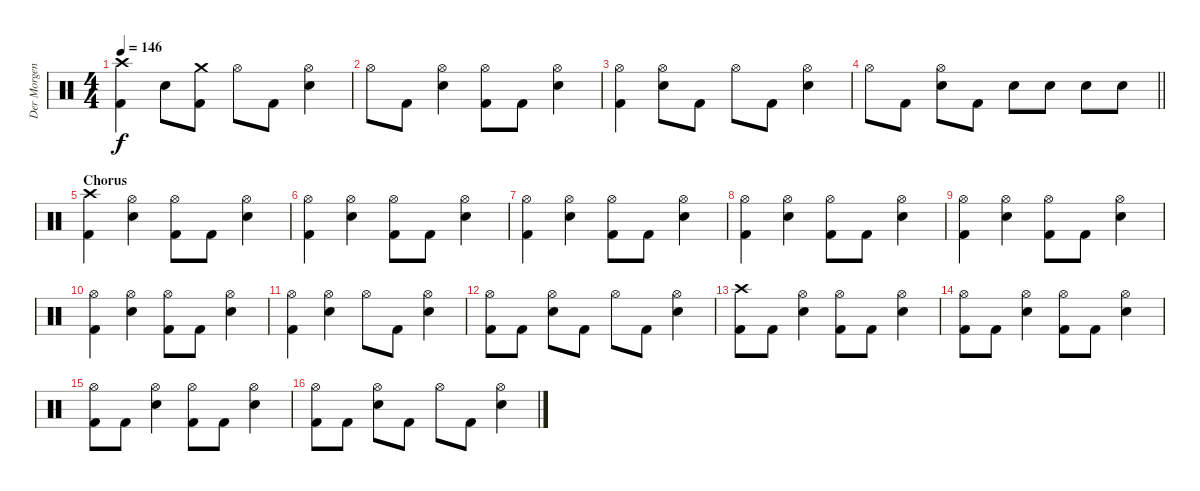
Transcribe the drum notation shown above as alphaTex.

\track ("Der Morgenstern" "Der Morgen") {instrument percussion}
\staff {score}
\articulation defaults
\ts (4 4)
\tempo 146
\clef neutral
\ks c
("Crash high (hit)" "Kick (hit) 2").4{dy f} "Electric Snare (hit)".8 ("Crash medium (hit)" "Kick (hit) 2").8 "Hi-Hat (open)".8 "Kick (hit) 2".8 ("Hi-Hat (open)" "Electric Snare (hit)").4 |
"Hi-Hat (open)".8 "Kick (hit) 2".8 ("Hi-Hat (open)" "Electric Snare (hit)").4 ("Hi-Hat (open)" "Kick (hit) 2").8 "Kick (hit) 2".8 ("Hi-Hat (open)" "Electric Snare (hit)").4 |
("Hi-Hat (open)" "Kick (hit) 2").4 ("Hi-Hat (open)" "Electric Snare (hit)").8 "Kick (hit) 2".8 "Hi-Hat (open)".8 "Kick (hit) 2".8 ("Hi-Hat (open)" "Electric Snare (hit)").4 |
\barLineRight lightlight "Hi-Hat (open)".8 "Kick (hit) 2".8
("Hi-Hat (open)" "Electric Snare (hit)").8 "Kick (hit) 2".8 "Electric Snare (hit)".8 "Electric Snare (hit)".8 "Electric Snare (hit)".8 "Electric Snare (hit)".8 |
\section ("" "Chorus")
("Crash high (hit)" "Kick (hit) 2").4 ("Hi-Hat (open)" "Electric Snare (hit)").4 ("Hi-Hat (open)" "Kick (hit) 2").8 "Kick (hit) 2".8 ("Hi-Hat (open)" "Electric Snare (hit)").4 |
("Hi-Hat (open)" "Kick (hit) 2").4 ("Hi-Hat (open)" "Electric Snare (hit)").4 ("Hi-Hat (open)" "Kick (hit) 2").8 "Kick (hit) 2".8 ("Hi-Hat (open)" "Electric Snare (hit)").4 |
("Hi-Hat (open)" "Kick (hit) 2").4 ("Hi-Hat (open)" "Electric Snare (hit)").4 ("Hi-Hat (open)" "Kick (hit) 2").8 "Kick (hit) 2".8 ("Hi-Hat (open)" "Electric Snare (hit)").4 |
("Hi-Hat (open)" "Kick (hit) 2").4 ("Hi-Hat (open)" "Electric Snare (hit)").4 ("Hi-Hat (open)" "Kick (hit) 2").8 "Kick (hit) 2".8 ("Hi-Hat (open)" "Electric Snare (hit)").4 |
("Hi-Hat (open)" "Kick (hit) 2").4 ("Hi-Hat (open)" "Electric Snare (hit)").4 ("Hi-Hat (open)" "Kick (hit) 2").8 "Kick (hit) 2".8 ("Hi-Hat (open)" "Electric Snare (hit)").4 |
("Hi-Hat (open)" "Kick (hit) 2").4 ("Hi-Hat (open)" "Electric Snare (hit)").4 ("Hi-Hat (open)" "Kick (hit) 2").8 "Kick (hit) 2".8 ("Hi-Hat (open)" "Electric Snare (hit)").4 |
("Hi-Hat (open)" "Kick (hit) 2").4 ("Hi-Hat (open)" "Electric Snare (hit)").4 "Hi-Hat (open)".8 "Kick (hit) 2".8 ("Hi-Hat (open)" "Electric Snare (hit)").4 |
("Hi-Hat (open)" "Kick (hit) 2").8 "Kick (hit) 2".8 ("Hi-Hat (open)" "Electric Snare (hit)").8 "Kick (hit) 2".8 "Hi-Hat (open)".8 "Kick (hit) 2".8 ("Hi-Hat (open)" "Electric Snare (hit)").4 |
("Crash high (hit)" "Kick (hit) 2").8 "Kick (hit) 2".8 ("Hi-Hat (open)" "Electric Snare (hit)").4 ("Hi-Hat (open)" "Kick (hit) 2").8 "Kick (hit) 2".8 ("Hi-Hat (open)" "Electric Snare (hit)").4 |
("Hi-Hat (open)" "Kick (hit) 2").8 "Kick (hit) 2".8 ("Hi-Hat (open)" "Electric Snare (hit)").4 ("Hi-Hat (open)" "Kick (hit) 2").8 "Kick (hit) 2".8 ("Hi-Hat (open)" "Electric Snare (hit)").4 |
("Hi-Hat (open)" "Kick (hit) 2").8 "Kick (hit) 2".8 ("Hi-Hat (open)" "Electric Snare (hit)").4 ("Hi-Hat (open)" "Kick (hit) 2").8 "Kick (hit) 2".8 ("Hi-Hat (open)" "Electric Snare (hit)").4 |
("Hi-Hat (open)" "Kick (hit) 2").8 "Kick (hit) 2".8 ("Hi-Hat (open)" "Electric Snare (hit)").8 "Kick (hit) 2".8 "Hi-Hat (open)".8 "Kick (hit) 2".8 ("Hi-Hat (open)" "Electric Snare (hit)").4
